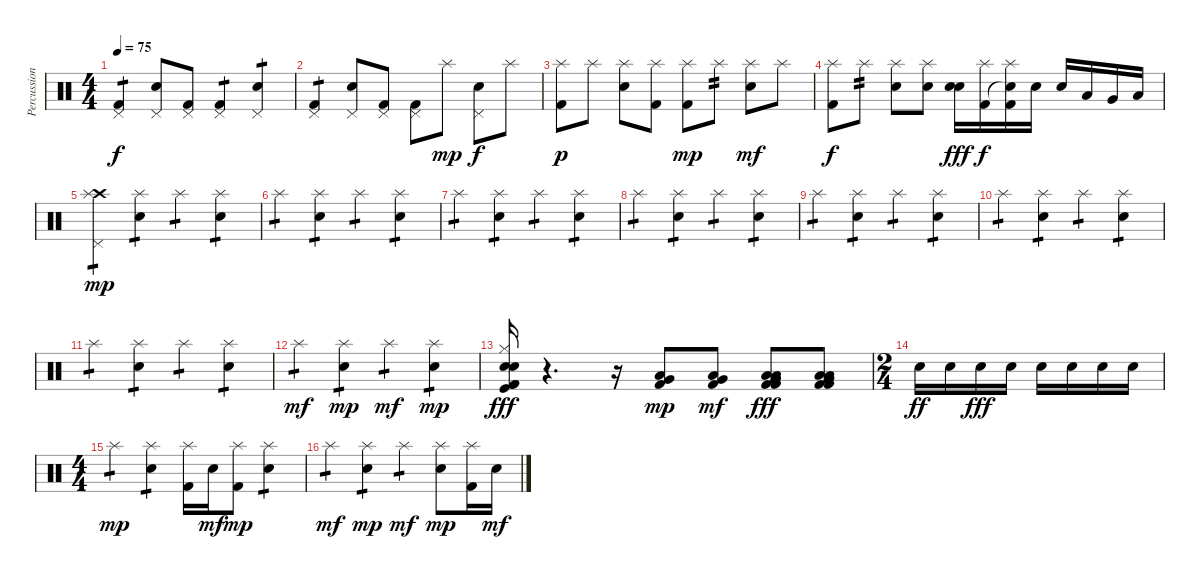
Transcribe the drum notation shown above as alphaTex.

\track ("Percussion" "Percussion") {instrument percussion}
\staff {score}
\articulation defaults
\ts (4 4)
\tempo 75
\clef neutral
\ks c
("Pedal Hi-Hat (hit)" "Kick (hit) 2").4{tp 1 dy f} ("Electric Snare (hit)" "Pedal Hi-Hat (hit)").8 ("Pedal Hi-Hat (hit)" "Kick (hit) 2").8 ("Pedal Hi-Hat (hit)" "Kick (hit) 2").4{tp 1} ("Electric Snare (hit)" "Pedal Hi-Hat (hit)").4{tp 1} |
("Pedal Hi-Hat (hit)" "Kick (hit) 2").4{tp 1} ("Electric Snare (hit)" "Pedal Hi-Hat (hit)").8 ("Pedal Hi-Hat (hit)" "Kick (hit) 2").8 ("Pedal Hi-Hat (hit)" "Kick (hit) 2").8 "Splash (hit)".8{dy mp} ("Electric Snare (hit)" "Pedal Hi-Hat (hit)").8{dy f} "Splash (hit)".8 |
("Kick (hit) 2" "Splash (hit)").8{dy p} "Splash (hit)".8 ("Electric Snare (hit)" "Splash (hit)").8 ("Kick (hit) 2" "Splash (hit)").8 ("Kick (hit) 2" "Splash (hit)").8{dy mp} "Splash (hit)".8{tp 2} ("Electric Snare (hit)" "Splash (hit)").8{dy mf} "Splash (hit)".8 |
("Kick (hit) 2" "Splash (hit)").8{dy f} "Splash (hit)".8{tp 2} ("Electric Snare (hit)" "Splash (hit)").8 ("Electric Snare (hit)" "Splash (hit)").8 ("Snare (hit) 2" "Electric Snare (hit)").16{dy fff} ("Kick (hit) 2" "Splash (hit)").16{dy f} ("Snare (hit)"{t} "Kick (hit) 2" "Splash (hit)").16 "Electric Snare (hit)".16 "Electric Snare (hit)".16 "Low Floor Tom (hit)".16 "Very Low Tom (hit)".16 "Low Floor Tom (hit)".16 |
("Crash high (hit)" "Splash (hit)" "Pedal Hi-Hat (hit)").4{tp 1 dy mp} ("Electric Snare (hit)" "Splash (hit)").4{tp 1} "Splash (hit)".4{tp 1} ("Electric Snare (hit)" "Splash (hit)").4{tp 1} |
"Splash (hit)".4{tp 1} ("Electric Snare (hit)" "Splash (hit)").4{tp 1} "Splash (hit)".4{tp 1} ("Electric Snare (hit)" "Splash (hit)").4{tp 1} |
"Splash (hit)".4{tp 1} ("Electric Snare (hit)" "Splash (hit)").4{tp 1} "Splash (hit)".4{tp 1} ("Electric Snare (hit)" "Splash (hit)").4{tp 1} |
"Splash (hit)".4{tp 1} ("Electric Snare (hit)" "Splash (hit)").4{tp 1} "Splash (hit)".4{tp 1} ("Electric Snare (hit)" "Splash (hit)").4{tp 1} |
"Splash (hit)".4{tp 1} ("Electric Snare (hit)" "Splash (hit)").4{tp 1} "Splash (hit)".4{tp 1} ("Electric Snare (hit)" "Splash (hit)").4{tp 1} |
"Splash (hit)".4{tp 1} ("Electric Snare (hit)" "Splash (hit)").4{tp 1} "Splash (hit)".4{tp 1} ("Electric Snare (hit)" "Splash (hit)").4{tp 1} |
"Splash (hit)".4{tp 1} ("Electric Snare (hit)" "Splash (hit)").4{tp 1} "Splash (hit)".4{tp 1} ("Electric Snare (hit)" "Splash (hit)").4{tp 1} |
"Splash (hit)".4{tp 1 dy mf} ("Electric Snare (hit)" "Splash (hit)").4{tp 1 dy mp} "Splash (hit)".4{tp 1 dy mf} ("Electric Snare (hit)" "Splash (hit)").4{tp 1 dy mp} |
("Electric Snare (hit)" "Hi-Hat (closed)" "Kick (hit)" "Kick (hit) 2" "Electric Snare (hit)" "Kick (hit) 2").16{dy fff} r.4{d} r.16 ("Low Tom (hit)" "Very Low Tom (hit)" "Kick (hit) 2").8{dy mp} ("Low Tom (hit)" "Very Low Tom (hit)" "Kick (hit) 2").8{dy mf} ("Low Tom (hit)" "Very Low Tom (hit)" "Very Low Tom (hit)" "Kick (hit) 2" "Low Tom (hit)" "Kick (hit) 2").8{dy fff} ("Low Tom (hit)" "Very Low Tom (hit)" "Very Low Tom (hit)" "Kick (hit) 2" "Low Tom (hit)" "Kick (hit) 2").8 |
\ts (2 4)
"Electric Snare (hit)".16{dy ff} "Electric Snare (hit)".16 "Electric Snare (hit)".16{dy fff} "Electric Snare (hit)".16 "Electric Snare (hit)".16 "Electric Snare (hit)".16 "Electric Snare (hit)".16 "Electric Snare (hit)".16 |
\ts (4 4)
"Splash (hit)".4{tp 1 dy mp} ("Electric Snare (hit)" "Splash (hit)").4{tp 1} ("Kick (hit) 2" "Splash (hit)").16 "Electric Snare (hit)".16{dy mf} ("Kick (hit) 2" "Splash (hit)").8{dy mp} ("Electric Snare (hit)" "Splash (hit)").4{tp 1} |
"Splash (hit)".4{tp 1 dy mf} ("Electric Snare (hit)" "Splash (hit)").4{tp 1 dy mp} "Splash (hit)".4{tp 1 dy mf} ("Electric Snare (hit)" "Splash (hit)").8{dy mp} ("Kick (hit) 2" "Splash (hit)").16 "Electric Snare (hit)".16{dy mf}
